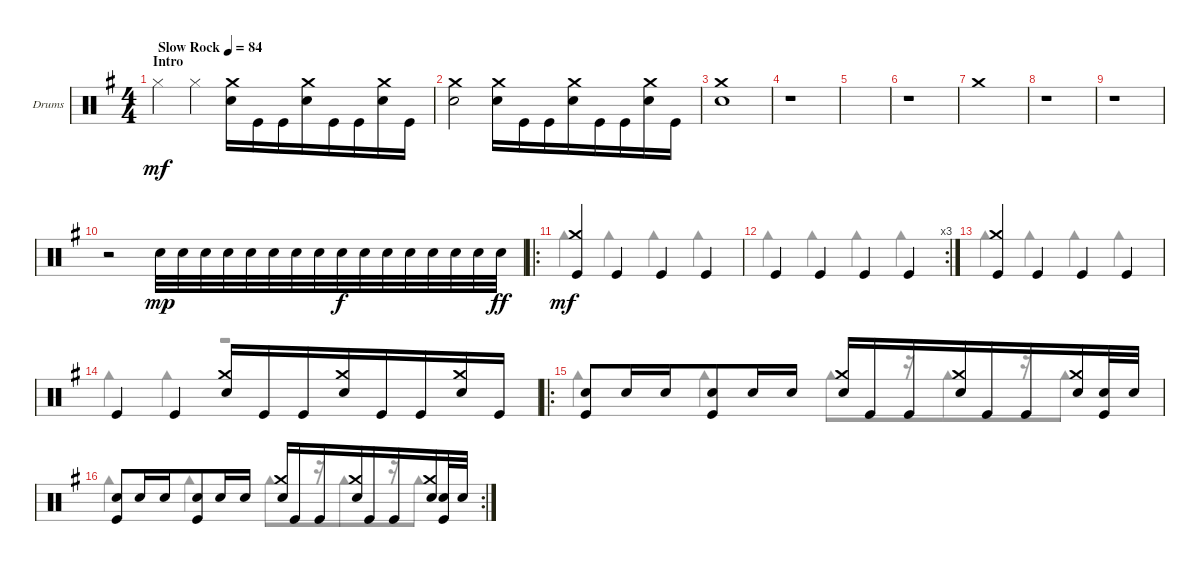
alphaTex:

\bracketExtendMode groupsimilarinstruments
\firstSystemTrackNameOrientation horizontal
\otherSystemsTrackNameOrientation horizontal
\track ("Drumkit" "Drums") {instrument percussion}
\staff {score}
\articulation defaults
\voice
\ts (4 4)
\beaming (8 4 4)
\section ("" "Intro")
\tempo (84 "Slow Rock")
\clef neutral
\scale
1.07314
\ks g "Hi-Hat (closed)".4{dy mf} "Hi-Hat (closed)".4
("Crash medium (hit)" "Snare (hit) 2").16 "Kick (hit)".16 "Kick (hit)".16 ("Crash medium (hit)" "Snare (hit) 2").16 "Kick (hit)".16 "Kick (hit)".16 ("Crash medium (hit)" "Snare (hit) 2").16 "Kick (hit)".16 |
\scale
0.92686 ("Crash medium (hit)" "Snare (hit) 2").2 ("Crash medium (hit)" "Snare (hit) 2").16 "Kick (hit)".16 "Kick (hit)".16 ("Crash medium (hit)" "Snare (hit) 2").16 "Kick (hit)".16 "Kick (hit)".16 ("Crash medium (hit)" "Snare (hit) 2").16 "Kick (hit)".16 |
\scale
1.04288 ("Crash medium (hit)" "Snare (hit) 2").1 |
\scale
0.957125 r.1 |
\scale
1.04288 |
\scale
0.957125 r.1 |
\scale
1.04288 "Crash medium (hit)".1 |
\scale
0.957125 r.1 |
\scale
1.04288 r.1 |
\scale
0.957125 r.2 "Snare (hit) 2".32{dy mp} "Snare (hit) 2".32 "Snare (hit) 2".32 "Snare (hit) 2".32 "Snare (hit) 2".32 "Snare (hit) 2".32 "Snare (hit) 2".32 "Snare (hit) 2".32 "Snare (hit) 2".32{dy f} "Snare (hit) 2".32 "Snare (hit) 2".32 "Snare (hit) 2".32 "Snare (hit) 2".32 "Snare (hit) 2".32 "Snare (hit) 2".32 "Snare (hit) 2".32{dy ff} |
\ro
\scale
1.04288 ("Crash medium (hit)" "Kick (hit)").4{dy mf} "Kick (hit)".4 "Kick (hit)".4 "Kick (hit)".4 |
\rc 3
\scale
0.957125 "Kick (hit)".4 "Kick (hit)".4 "Kick (hit)".4 "Kick (hit)".4 |
\scale
1.04288 ("Crash medium (hit)" "Kick (hit)").4 "Kick (hit)".4 "Kick (hit)".4 "Kick (hit)".4 |
\scale
0.957125 "Kick (hit)".4 "Kick (hit)".4 ("Crash medium (hit)" "Snare (hit) 2").16 "Kick (hit)".16 "Kick (hit)".16 ("Crash medium (hit)" "Snare (hit) 2").16 "Kick (hit)".16 "Kick (hit)".16 ("Crash medium (hit)" "Snare (hit) 2").16 "Kick (hit)".16 |
\ro
\scale
1.04288 ("Snare (hit) 2" "Kick (hit)").8 "Snare (hit) 2".16 "Snare (hit) 2".16 ("Snare (hit) 2" "Kick (hit)").8 "Snare (hit) 2".16 "Snare (hit) 2".16 ("Crash medium (hit)" "Snare (hit) 2").16 "Kick (hit)".16 "Kick (hit)".16 ("Crash medium (hit)" "Snare (hit) 2").16 "Kick (hit)".16 "Kick (hit)".16 ("Crash medium (hit)" "Snare (hit) 2").16 ("Snare (hit) 2" "Kick (hit)").32 "Snare (hit) 2".32 |
\rc 2
\scale
0.957125 ("Snare (hit) 2" "Kick (hit)").8 "Snare (hit) 2".16 "Snare (hit) 2".16 ("Snare (hit) 2" "Kick (hit)").8 "Snare (hit) 2".16 "Snare (hit) 2".16 ("Crash medium (hit)" "Snare (hit) 2").16 "Kick (hit)".16 "Kick (hit)".16 ("Crash medium (hit)" "Snare (hit) 2").16 "Kick (hit)".16 "Kick (hit)".16 ("Crash medium (hit)" "Snare (hit) 2").16 ("Snare (hit) 2" "Kick (hit)").32 "Snare (hit) 2".32
\voice
\clef neutral
\ottava regular
\simile none
\scale
1.07314
\ks g
|
\scale
0.92686 |
\scale
1.04288 |
\scale
0.957125 |
\scale
1.04288 |
\scale
0.957125 |
\scale
1.04288 |
\scale
0.957125 |
\scale
1.04288 |
\scale
0.957125 |
\scale
1.04288 "Cowbell high (hit)".4 "Cowbell high (hit)".4 "Cowbell high (hit)".4 "Cowbell high (hit)".4 |
\scale
0.957125 "Cowbell high (hit)".4 "Cowbell high (hit)".4 "Cowbell high (hit)".4 "Cowbell high (hit)".4 |
\scale
1.04288 "Cowbell high (hit)".4 "Cowbell high (hit)".4 "Cowbell high (hit)".4 "Cowbell high (hit)".4 |
\scale
0.957125 "Cowbell high (hit)".4 "Cowbell high (hit)".4 r.2 |
\scale
1.04288 "Cowbell high (hit)".4 "Cowbell high (hit)".4 "Cowbell high (hit)".8 r.16 "Cowbell high (hit)".8 r.16 "Cowbell high (hit)".8 |
\scale
0.957125 "Cowbell high (hit)".4 "Cowbell high (hit)".4 "Cowbell high (hit)".8 r.16 "Cowbell high (hit)".8 r.16 "Cowbell high (hit)".8
